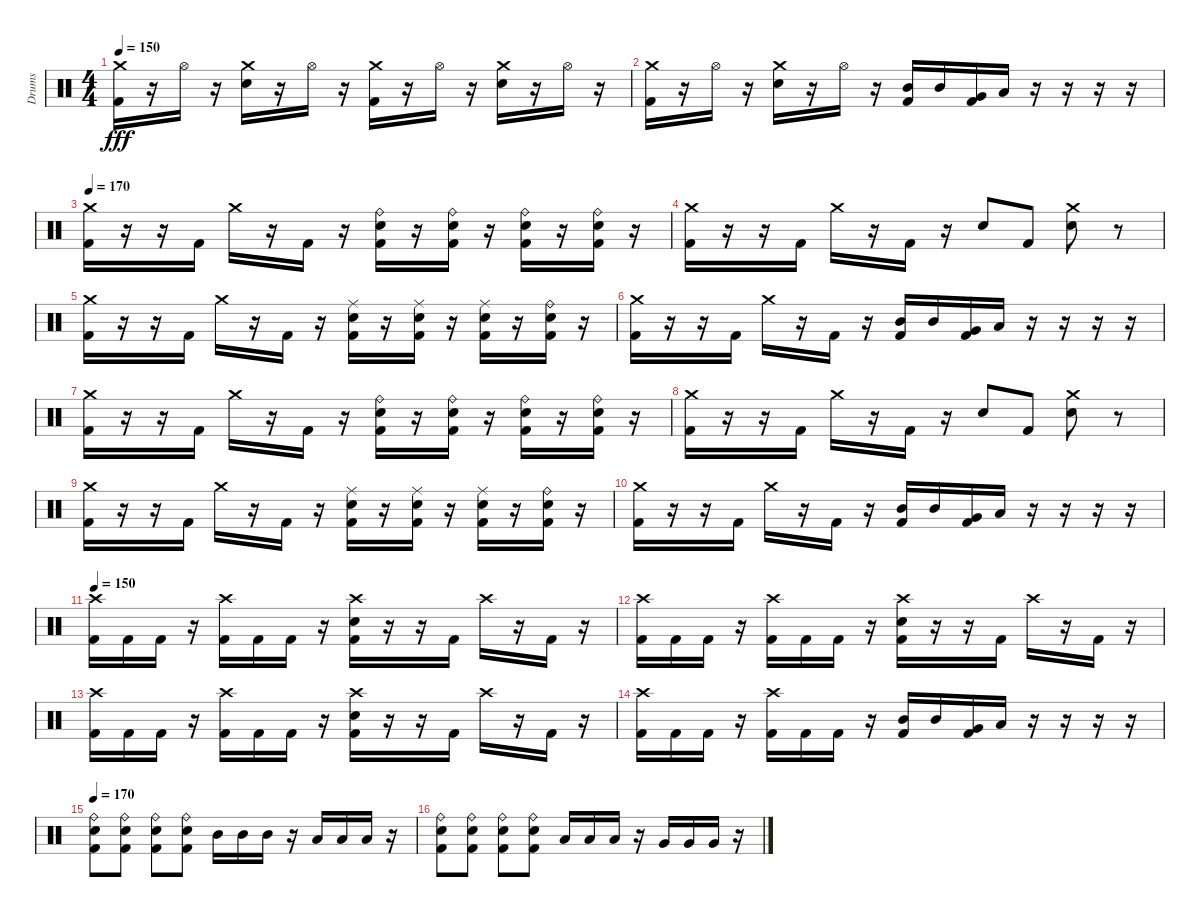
\track ("Drums" "Drums") {instrument percussion}
\staff {score}
\articulation defaults
\ts (4 4)
\tempo 150
\clef neutral
\ks c
("Crash medium (hit)" "Kick (hit) 2").16{dy fff} r.16 "Hi-Hat (open)".16 r.16 ("Crash medium (hit)" "Electric Snare (hit)").16 r.16 "Hi-Hat (open)".16 r.16 ("Crash medium (hit)" "Kick (hit) 2").16 r.16 "Hi-Hat (open)".16 r.16 ("Crash medium (hit)" "Electric Snare (hit)").16 r.16 "Hi-Hat (open)".16 r.16 |
("Crash medium (hit)" "Kick (hit) 2").16 r.16 "Hi-Hat (open)".16 r.16 ("Crash medium (hit)" "Electric Snare (hit)").16 r.16 "Hi-Hat (open)".16 r.16 ("Mid Tom (hit)" "Kick (hit) 2").16 "Mid Tom (hit)".16 ("Very Low Tom (hit)" "Kick (hit) 2").16 "Low Tom (hit)".16 r.16 r.16 r.16 r.16 |
\tempo 170
("Crash medium (hit)" "Kick (hit) 2").16 r.16 r.16 "Kick (hit) 2".16 "Crash medium (hit)".16 r.16 "Kick (hit) 2".16 r.16 ("Ride (bell)" "Electric Snare (hit)" "Kick (hit) 2").16 r.16 ("Ride (bell)" "Electric Snare (hit)" "Kick (hit) 2").16 r.16 ("Ride (bell)" "Electric Snare (hit)" "Kick (hit) 2").16 r.16 ("Ride (bell)" "Electric Snare (hit)" "Kick (hit) 2").16 r.16 |
("Crash medium (hit)" "Kick (hit) 2").16 r.16 r.16 "Kick (hit) 2".16 "Crash medium (hit)".16 r.16 "Kick (hit) 2".16 r.16 "Electric Snare (hit)".8 "Kick (hit) 2".8 ("Crash medium (hit)" "Electric Snare (hit)").8 r.8 |
("Crash medium (hit)" "Kick (hit) 2").16 r.16 r.16 "Kick (hit) 2".16 "Crash medium (hit)".16 r.16 "Kick (hit) 2".16 r.16 ("Ride (middle)" "Electric Snare (hit)" "Kick (hit) 2").16 r.16 ("Ride (middle)" "Electric Snare (hit)" "Kick (hit) 2").16 r.16 ("Ride (middle)" "Electric Snare (hit)" "Kick (hit) 2").16 r.16 ("Ride (bell)" "Electric Snare (hit)" "Kick (hit) 2").16 r.16 |
("Crash medium (hit)" "Kick (hit) 2").16 r.16 r.16 "Kick (hit) 2".16 "Crash medium (hit)".16 r.16 "Kick (hit) 2".16 r.16 ("Mid Tom (hit)" "Kick (hit) 2").16 "Mid Tom (hit)".16 ("Very Low Tom (hit)" "Kick (hit) 2").16 "Low Tom (hit)".16 r.16 r.16 r.16 r.16 |
("Crash medium (hit)" "Kick (hit) 2").16 r.16 r.16 "Kick (hit) 2".16 "Crash medium (hit)".16 r.16 "Kick (hit) 2".16 r.16 ("Ride (bell)" "Electric Snare (hit)" "Kick (hit) 2").16 r.16 ("Ride (bell)" "Electric Snare (hit)" "Kick (hit) 2").16 r.16 ("Ride (bell)" "Electric Snare (hit)" "Kick (hit) 2").16 r.16 ("Ride (bell)" "Electric Snare (hit)" "Kick (hit) 2").16 r.16 |
("Crash medium (hit)" "Kick (hit) 2").16 r.16 r.16 "Kick (hit) 2".16 "Crash medium (hit)".16 r.16 "Kick (hit) 2".16 r.16 "Electric Snare (hit)".8 "Kick (hit) 2".8 ("Crash medium (hit)" "Electric Snare (hit)").8 r.8 |
("Crash medium (hit)" "Kick (hit) 2").16 r.16 r.16 "Kick (hit) 2".16 "Crash medium (hit)".16 r.16 "Kick (hit) 2".16 r.16 ("Ride (middle)" "Electric Snare (hit)" "Kick (hit) 2").16 r.16 ("Ride (middle)" "Electric Snare (hit)" "Kick (hit) 2").16 r.16 ("Ride (middle)" "Electric Snare (hit)" "Kick (hit) 2").16 r.16 ("Ride (bell)" "Electric Snare (hit)" "Kick (hit) 2").16 r.16 |
("Crash medium (hit)" "Kick (hit) 2").16 r.16 r.16 "Kick (hit) 2".16 "Crash medium (hit)".16 r.16 "Kick (hit) 2".16 r.16 ("Mid Tom (hit)" "Kick (hit) 2").16 "Mid Tom (hit)".16 ("Very Low Tom (hit)" "Kick (hit) 2").16 "Low Tom (hit)".16 r.16 r.16 r.16 r.16 |
\tempo 150
("Crash high (hit)" "Kick (hit) 2").16 "Kick (hit) 2".16 "Kick (hit) 2".16 r.16 ("Crash high (hit)" "Kick (hit) 2").16 "Kick (hit) 2".16 "Kick (hit) 2".16 r.16 ("Crash high (hit)" "Electric Snare (hit)" "Kick (hit) 2").16 r.16 r.16 "Kick (hit) 2".16 "Crash high (hit)".16 r.16 "Kick (hit) 2".16 r.16 |
("Crash high (hit)" "Kick (hit) 2").16 "Kick (hit) 2".16 "Kick (hit) 2".16 r.16 ("Crash high (hit)" "Kick (hit) 2").16 "Kick (hit) 2".16 "Kick (hit) 2".16 r.16 ("Crash high (hit)" "Electric Snare (hit)" "Kick (hit) 2").16 r.16 r.16 "Kick (hit) 2".16 "Crash high (hit)".16 r.16 "Kick (hit) 2".16 r.16 |
("Crash high (hit)" "Kick (hit) 2").16 "Kick (hit) 2".16 "Kick (hit) 2".16 r.16 ("Crash high (hit)" "Kick (hit) 2").16 "Kick (hit) 2".16 "Kick (hit) 2".16 r.16 ("Crash high (hit)" "Electric Snare (hit)" "Kick (hit) 2").16 r.16 r.16 "Kick (hit) 2".16 "Crash high (hit)".16 r.16 "Kick (hit) 2".16 r.16 |
("Crash high (hit)" "Kick (hit) 2").16 "Kick (hit) 2".16 "Kick (hit) 2".16 r.16 ("Crash high (hit)" "Kick (hit) 2").16 "Kick (hit) 2".16 "Kick (hit) 2".16 r.16 ("Mid Tom (hit)" "Kick (hit) 2").16 "Mid Tom (hit)".16 ("Very Low Tom (hit)" "Kick (hit) 2").16 "Low Tom (hit)".16 r.16 r.16 r.16 r.16 |
\tempo 170
("Ride (bell)" "Electric Snare (hit)" "Kick (hit) 2").8 ("Ride (bell)" "Electric Snare (hit)" "Kick (hit) 2").8 ("Ride (bell)" "Electric Snare (hit)" "Kick (hit) 2").8 ("Ride (bell)" "Electric Snare (hit)" "Kick (hit) 2").8 "Mid Tom (hit)".16 "Mid Tom (hit)".16 "Mid Tom (hit)".16 r.16 "Low Tom (hit)".16 "Low Tom (hit)".16 "Low Tom (hit)".16 r.16 |
("Ride (bell)" "Electric Snare (hit)" "Kick (hit) 2").8 ("Ride (bell)" "Electric Snare (hit)" "Kick (hit) 2").8 ("Ride (bell)" "Electric Snare (hit)" "Kick (hit) 2").8 ("Ride (bell)" "Electric Snare (hit)" "Kick (hit) 2").8 "Low Tom (hit)".16 "Low Tom (hit)".16 "Low Tom (hit)".16 r.16 "Very Low Tom (hit)".16 "Very Low Tom (hit)".16 "Very Low Tom (hit)".16 r.16
